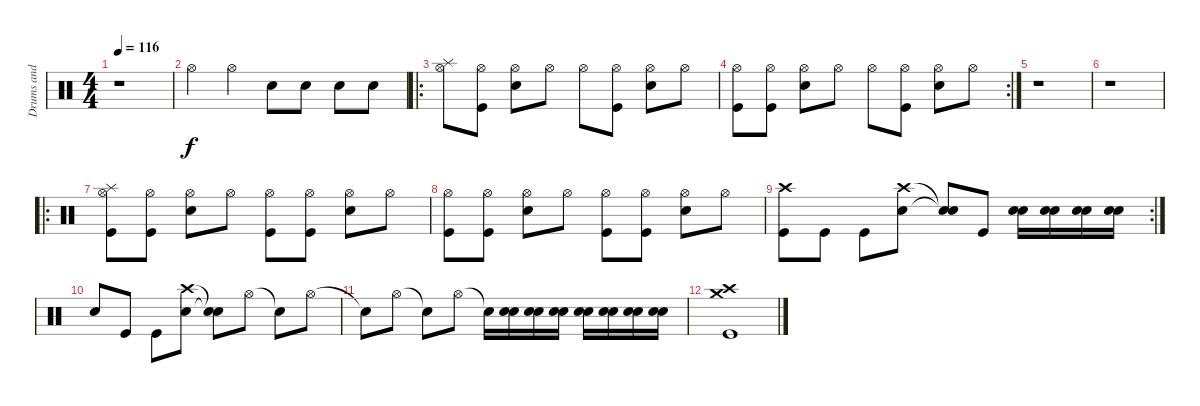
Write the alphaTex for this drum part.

\track ("Drums and Percussions" "Drums and ") {instrument percussion}
\staff {score}
\articulation defaults
\ts (4 4)
\tempo 116
\clef neutral
\ks c
r.1{dy f} |
"Hi-Hat (open)".4 "Hi-Hat (open)".4 "Electric Snare (hit)".8 "Electric Snare (hit)".8 "Electric Snare (hit)".8 "Electric Snare (hit)".8 |
\ro
("Splash (hit)" "Hi-Hat (open)").8 ("Hi-Hat (open)" "Kick (hit)").8 ("Electric Snare (hit)" "Hi-Hat (open)").8 "Hi-Hat (open)".8 "Hi-Hat (open)".8 ("Hi-Hat (open)" "Kick (hit)").8 ("Electric Snare (hit)" "Hi-Hat (open)").8 "Hi-Hat (open)".8 |
\rc 2
("Hi-Hat (open)" "Kick (hit)").8 ("Hi-Hat (open)" "Kick (hit)").8 ("Electric Snare (hit)" "Hi-Hat (open)").8 "Hi-Hat (open)".8 "Hi-Hat (open)".8 ("Hi-Hat (open)" "Kick (hit)").8 ("Electric Snare (hit)" "Hi-Hat (open)").8 "Hi-Hat (open)".8 |
r.1 |
r.1 |
\ro
("Splash (hit)" "Hi-Hat (open)" "Kick (hit)").8 ("Hi-Hat (open)" "Kick (hit)").8 ("Electric Snare (hit)" "Hi-Hat (open)").8 "Hi-Hat (open)".8 ("Hi-Hat (open)" "Kick (hit)").8 ("Hi-Hat (open)" "Kick (hit)").8 ("Electric Snare (hit)" "Hi-Hat (open)").8 "Hi-Hat (open)".8 |
("Hi-Hat (open)" "Kick (hit)").8 ("Hi-Hat (open)" "Kick (hit)").8 ("Electric Snare (hit)" "Hi-Hat (open)").8 "Hi-Hat (open)".8 ("Hi-Hat (open)" "Kick (hit)").8 ("Hi-Hat (open)" "Kick (hit)").8 ("Electric Snare (hit)" "Hi-Hat (open)").8 "Hi-Hat (open)".8 |
\rc 2
("Crash high (hit)" "Kick (hit)").8 "Kick (hit)".8 "Kick (hit)".8 ("Crash high (hit)" "Electric Snare (hit)").8 ("Snare (hit)"{t} "Snare (hit)"{t}).8 "Kick (hit)".8 ("Electric Snare (hit)" "Snare (hit) 2").16 ("Electric Snare (hit)" "Snare (hit) 2").16 ("Electric Snare (hit)" "Snare (hit) 2").16 ("Electric Snare (hit)" "Snare (hit) 2").16 |
"Electric Snare (hit)".8 "Kick (hit)".8 "Kick (hit)".8 ("Crash high (hit)" "Electric Snare (hit)").8 ("Snare (hit)"{t} "Snare (hit)"{t}).8 "Hi-Hat (open)".8 "Snare (hit)"{t}.8 "Hi-Hat (open)".8 |
"Snare (hit)"{t}.8 "Hi-Hat (open)".8 "Snare (hit)"{t}.8 "Hi-Hat (open)".8 "Snare (hit)"{t}.16 ("Electric Snare (hit)" "Snare (hit) 2").16 ("Electric Snare (hit)" "Snare (hit) 2").16 ("Electric Snare (hit)" "Snare (hit) 2").16 ("Electric Snare (hit)" "Snare (hit) 2").16 ("Electric Snare (hit)" "Snare (hit) 2").16 ("Electric Snare (hit)" "Snare (hit) 2").16 ("Electric Snare (hit)" "Snare (hit) 2").16 |
("Crash high (hit)" "Crash medium (hit)" "Kick (hit)").1
